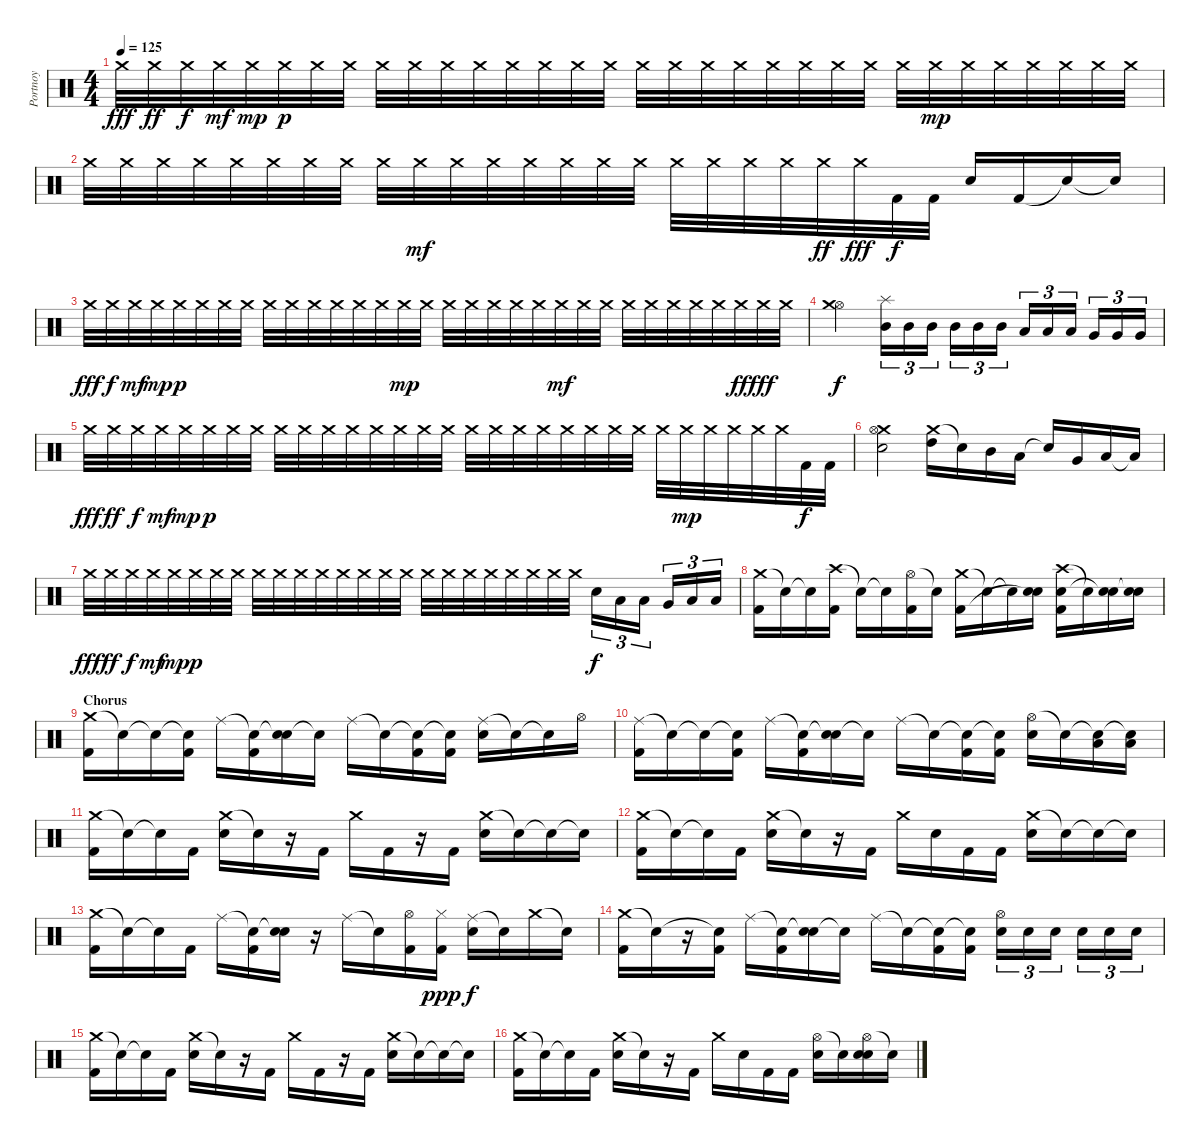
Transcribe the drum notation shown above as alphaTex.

\track ("Portnoy" "Portnoy") {instrument percussion}
\staff {score}
\articulation defaults
\ts (4 4)
\tempo 125
\clef neutral
\ks c "Crash medium (hit)".32{dy fff} "Crash medium (hit)".32{dy ff} "Crash medium (hit)".32{dy f} "Crash medium (hit)".32{dy mf} "Crash medium (hit)".32{dy mp} "Crash medium (hit)".32{dy p} "Crash medium (hit)".32 "Crash medium (hit)".32 "Crash medium (hit)".32 "Crash medium (hit)".32 "Crash medium (hit)".32 "Crash medium (hit)".32 "Crash medium (hit)".32 "Crash medium (hit)".32 "Crash medium (hit)".32 "Crash medium (hit)".32 "Crash medium (hit)".32 "Crash medium (hit)".32 "Crash medium (hit)".32 "Crash medium (hit)".32 "Crash medium (hit)".32 "Crash medium (hit)".32 "Crash medium (hit)".32 "Crash medium (hit)".32 "Crash medium (hit)".32 "Crash medium (hit)".32{dy mp} "Crash medium (hit)".32 "Crash medium (hit)".32 "Crash medium (hit)".32 "Crash medium (hit)".32 "Crash medium (hit)".32 "Crash medium (hit)".32
|
"Crash medium (hit)".32 "Crash medium (hit)".32 "Crash medium (hit)".32 "Crash medium (hit)".32 "Crash medium (hit)".32 "Crash medium (hit)".32 "Crash medium (hit)".32 "Crash medium (hit)".32 "Crash medium (hit)".32 "Crash medium (hit)".32{dy mf} "Crash medium (hit)".32 "Crash medium (hit)".32 "Crash medium (hit)".32 "Crash medium (hit)".32 "Crash medium (hit)".32 "Crash medium (hit)".32 "Crash medium (hit)".32 "Crash medium (hit)".32 "Crash medium (hit)".32 "Crash medium (hit)".32 "Crash medium (hit)".32{dy ff} "Crash medium (hit)".32{dy fff} "Kick (hit) 2".32{dy f} "Kick (hit) 2".32 "Snare (hit) 2".16 "Kick (hit) 2".16 "Snare (hit)"{t}.16 "Snare (hit)"{t}.16 |
"Crash medium (hit)".32{dy fff} "Crash medium (hit)".32{dy f} "Crash medium (hit)".32{dy mf} "Crash medium (hit)".32{dy mp} "Crash medium (hit)".32{dy p} "Crash medium (hit)".32 "Crash medium (hit)".32 "Crash medium (hit)".32 "Crash medium (hit)".32 "Crash medium (hit)".32 "Crash medium (hit)".32 "Crash medium (hit)".32 "Crash medium (hit)".32 "Crash medium (hit)".32 "Crash medium (hit)".32{dy mp} "Crash medium (hit)".32 "Crash medium (hit)".32 "Crash medium (hit)".32 "Crash medium (hit)".32 "Crash medium (hit)".32 "Crash medium (hit)".32 "Crash medium (hit)".32{dy mf} "Crash medium (hit)".32 "Crash medium (hit)".32 "Crash medium (hit)".32 "Crash medium (hit)".32 "Crash medium (hit)".32 "Crash medium (hit)".32 "Crash medium (hit)".32 "Crash medium (hit)".32{dy ff} "Crash medium (hit)".32{dy fff} "Crash medium (hit)".32 |
("Hi-Hat (open)" "Crash medium (hit)").2{dy f} ("Mid Tom (hit)" "Splash (hit)").16{tu (3 2)} "Mid Tom (hit)".16{tu (3 2)} "Mid Tom (hit)".16{tu (3 2)} "Mid Tom (hit)".16{tu (3 2)} "Mid Tom (hit)".16{tu (3 2)} "Mid Tom (hit)".16{tu (3 2)} "Low Tom (hit)".16{tu (3 2)} "Low Tom (hit)".16{tu (3 2)} "Low Tom (hit)".16{tu (3 2)} "Very Low Tom (hit)".16{tu (3 2)} "Very Low Tom (hit)".16{tu (3 2)} "Very Low Tom (hit)".16{tu (3 2)} |
"Crash medium (hit)".32{dy fff} "Crash medium (hit)".32{dy ff} "Crash medium (hit)".32{dy f} "Crash medium (hit)".32{dy mf} "Crash medium (hit)".32{dy mp} "Crash medium (hit)".32{dy p} "Crash medium (hit)".32 "Crash medium (hit)".32 "Crash medium (hit)".32 "Crash medium (hit)".32 "Crash medium (hit)".32 "Crash medium (hit)".32 "Crash medium (hit)".32 "Crash medium (hit)".32 "Crash medium (hit)".32 "Crash medium (hit)".32 "Crash medium (hit)".32 "Crash medium (hit)".32 "Crash medium (hit)".32 "Crash medium (hit)".32 "Crash medium (hit)".32 "Crash medium (hit)".32 "Crash medium (hit)".32 "Crash medium (hit)".32 "Crash medium (hit)".32 "Crash medium (hit)".32{dy mp} "Crash medium (hit)".32 "Crash medium (hit)".32 "Crash medium (hit)".32 "Crash medium (hit)".32 "Kick (hit) 2".32{dy f} "Kick (hit) 2".32 |
("Crash medium (hit)" "Hi-Hat (open)" "Snare (hit) 2").2 ("Crash medium (hit)" "High Tom (hit)").16 "Snare (hit)"{t}.16 "Mid Tom (hit)".16 "Low Tom (hit)".16 "Snare (hit)"{t}.16 "Very Low Tom (hit)".16 "Low Floor Tom (hit)".16 "Low Floor Tom (hit)"{t}.16 |
"Crash medium (hit)".32{dy fff} "Crash medium (hit)".32{dy ff} "Crash medium (hit)".32{dy f} "Crash medium (hit)".32{dy mf} "Crash medium (hit)".32{dy mp} "Crash medium (hit)".32{dy p} "Crash medium (hit)".32 "Crash medium (hit)".32 "Crash medium (hit)".32 "Crash medium (hit)".32 "Crash medium (hit)".32 "Crash medium (hit)".32 "Crash medium (hit)".32 "Crash medium (hit)".32 "Crash medium (hit)".32 "Crash medium (hit)".32 "Crash medium (hit)".32 "Crash medium (hit)".32 "Crash medium (hit)".32 "Crash medium (hit)".32 "Crash medium (hit)".32 "Crash medium (hit)".32 "Crash medium (hit)".32 "Crash medium (hit)".32 "Snare (hit) 2".16{tu (3 2) dy f} "Low Tom (hit)".16{tu (3 2)} "Low Tom (hit)".16{tu (3 2)} "Very Low Tom (hit)".16{tu (3 2)} "Low Floor Tom (hit)".16{tu (3 2)} "Low Floor Tom (hit)".16{tu (3 2)} |
("Crash medium (hit)" "Kick (hit) 2").16 "Snare (hit)"{t}.16 "Snare (hit)"{t}.16 ("Crash high (hit)" "Kick (hit) 2").16 "Snare (hit)"{t}.16 "Snare (hit)"{t}.16 ("Hi-Hat (open)" "Kick (hit) 2").16 "Snare (hit)"{t}.16 ("Crash medium (hit)" "Kick (hit) 2").16 "Snare (hit)"{t}.16 "Snare (hit)"{t}.16 ("Snare (hit) 2" "Snare (hit)"{t}).16 ("Crash high (hit)" "Snare (hit) 2" "Kick (hit) 2").16 "Snare (hit)"{t}.16 ("Snare (hit) 2" "Snare (hit)"{t}).16 ("Snare (hit) 2" "Snare (hit)"{t}).16 |
\section ("" "Chorus")
("Crash medium (hit)" "Kick (hit) 2").16 "Snare (hit)"{t}.16 "Snare (hit)"{t}.16 ("Snare (hit)"{t} "Kick (hit) 2").16 "Ride (middle)".16 ("Snare (hit)"{t} "Kick (hit) 2").16 ("Snare (hit)"{t} "Snare (hit) 2").16 "Snare (hit)"{t}.16 "Ride (middle)".16 "Snare (hit)"{t}.16 ("Snare (hit)"{t} "Kick (hit) 2").16 ("Snare (hit)"{t} "Kick (hit) 2").16 ("Ride (middle)" "Snare (hit) 2").16 "Snare (hit)"{t}.16 "Snare (hit)"{t}.16 "Hi-Hat (open)".16 |
("Ride (middle)" "Kick (hit) 2").16 "Snare (hit)"{t}.16 "Snare (hit)"{t}.16 ("Snare (hit)"{t} "Kick (hit) 2").16 "Ride (middle)".16 ("Snare (hit)"{t} "Kick (hit) 2").16 ("Snare (hit)"{t} "Snare (hit) 2").16 "Snare (hit)"{t}.16 "Ride (middle)".16 "Snare (hit)"{t}.16 ("Snare (hit)"{t} "Kick (hit) 2").16 ("Snare (hit)"{t} "Kick (hit) 2").16 ("Hi-Hat (open)" "Snare (hit) 2").16 "Snare (hit)"{t}.16 ("Snare (hit)"{t} "Low Tom (hit)").16 ("Snare (hit)"{t} "Low Tom (hit)").16 |
("Crash medium (hit)" "Kick (hit) 2").16 "Snare (hit)"{t}.16 "Snare (hit)"{t}.16 "Kick (hit) 2".16 ("Crash medium (hit)" "Snare (hit) 2").16 "Snare (hit)"{t}.16 r.16 "Kick (hit) 2".16 "Crash medium (hit)".16 "Kick (hit) 2".16 r.16 "Kick (hit) 2".16 ("Crash medium (hit)" "Snare (hit) 2").16 "Snare (hit)"{t}.16 "Snare (hit)"{t}.16 "Snare (hit)"{t}.16 |
("Crash medium (hit)" "Kick (hit) 2").16 "Snare (hit)"{t}.16 "Snare (hit)"{t}.16 "Kick (hit) 2".16 ("Crash medium (hit)" "Snare (hit) 2").16 "Snare (hit)"{t}.16 r.16 "Kick (hit) 2".16 "Crash medium (hit)".16 "Snare (hit) 2".16 "Kick (hit) 2".16 "Kick (hit) 2".16 ("Crash medium (hit)" "Snare (hit) 2").16 "Snare (hit)"{t}.16 "Snare (hit)"{t}.16 "Snare (hit)"{t}.16 |
("Crash medium (hit)" "Kick (hit) 2").16 "Snare (hit)"{t}.16 "Snare (hit)"{t}.16 "Kick (hit) 2".16 "Ride (middle)".16 ("Snare (hit)"{t} "Kick (hit) 2").16 ("Snare (hit)"{t} "Snare (hit) 2").16 r.16 "Ride (middle)".16 "Snare (hit)"{t}.16 ("Hi-Hat (open)" "Kick (hit) 2").16 ("Hi-Hat (closed)" "Kick (hit) 2").16{dy ppp} ("Ride (middle)" "Snare (hit) 2").16{dy f} "Snare (hit)"{t}.16 "Crash medium (hit)".16 "Snare (hit)"{t}.16 |
("Crash medium (hit)" "Kick (hit) 2").16 "Snare (hit)"{t}.16 r.16 ("Snare (hit)"{t} "Kick (hit) 2").16 "Ride (middle)".16 ("Snare (hit)"{t} "Kick (hit) 2").16 ("Snare (hit)"{t} "Snare (hit) 2").16 "Snare (hit)"{t}.16 "Ride (middle)".16 "Snare (hit)"{t}.16 ("Snare (hit)"{t} "Kick (hit) 2").16 ("Snare (hit)"{t} "Kick (hit) 2").16 ("Hi-Hat (open)" "Snare (hit) 2").16{tu (3 2)} "Snare (hit) 2".16{tu (3 2)} "Snare (hit) 2".16{tu (3 2)} "Snare (hit) 2".16{tu (3 2)} "Snare (hit) 2".16{tu (3 2)} "Snare (hit) 2".16{tu (3 2)} |
("Crash medium (hit)" "Kick (hit) 2").16 "Snare (hit)"{t}.16 "Snare (hit)"{t}.16 "Kick (hit) 2".16 ("Crash medium (hit)" "Snare (hit) 2").16 "Snare (hit)"{t}.16 r.16 "Kick (hit) 2".16 "Crash medium (hit)".16 "Kick (hit) 2".16 r.16 "Kick (hit) 2".16 ("Crash medium (hit)" "Snare (hit) 2").16 "Snare (hit)"{t}.16 "Snare (hit)"{t}.16 "Snare (hit)"{t}.16 |
("Crash medium (hit)" "Kick (hit) 2").16 "Snare (hit)"{t}.16 "Snare (hit)"{t}.16 "Kick (hit) 2".16 ("Crash medium (hit)" "Snare (hit) 2").16 "Snare (hit)"{t}.16 r.16 "Kick (hit) 2".16 "Crash medium (hit)".16 "Snare (hit) 2".16 "Kick (hit) 2".16 "Kick (hit) 2".16 ("Hi-Hat (open)" "Snare (hit) 2").16 "Snare (hit)"{t}.16 ("Hi-Hat (open)" "Snare (hit) 2" "Snare (hit)").16 "Snare (hit)"{t}.16
